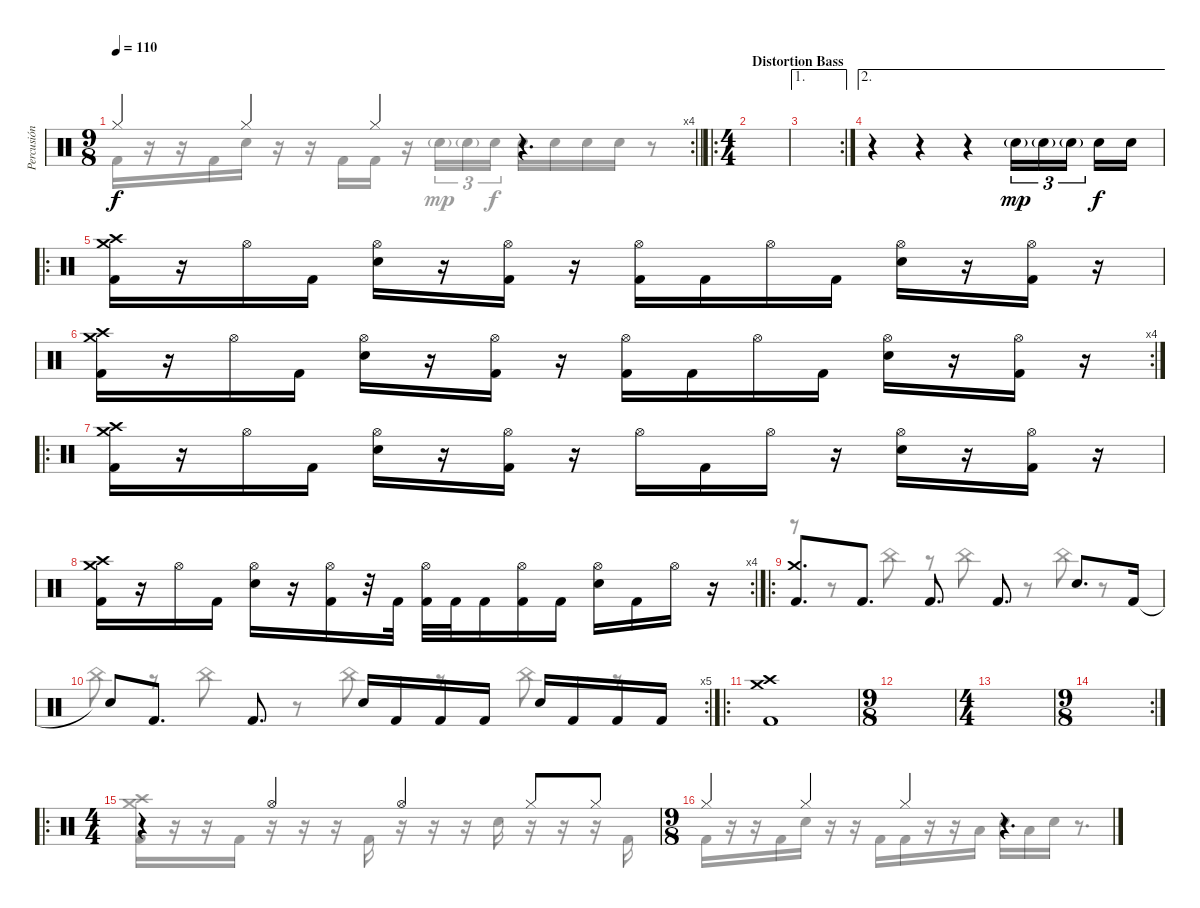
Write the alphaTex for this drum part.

\track ("Percusión" "Percusión") {instrument percussion}
\staff {score}
\articulation defaults
\voice
\rc 4
\ts (9 8)
\tempo 110
\clef neutral
\barLineRight lightlight
\ks c "Hi-Hat (closed)".4{dy f} "Hi-Hat (closed)".4 "Hi-Hat (closed)".4
r.4{d} |
\ro
\ts (4 4)
\section ("" "Distortion Bass")
|
\ae 1
\rc 2
|
\ae 2
r.4 r.4 r.4 "Snare (hit) 2"{g}.16{tu (3 2) dy mp} "Snare (hit) 2"{g}.16{tu (3 2)} "Snare (hit) 2"{g}.16{tu (3 2) beam splitsecondary} "Snare (hit) 2".16{dy f} "Snare (hit) 2".16 |
\ro
("Crash high (hit)" "Crash medium (hit)" "Kick (hit) 2").16 r.16 "Hi-Hat (open)".16 "Kick (hit) 2".16 ("Hi-Hat (open)" "Snare (hit) 2").16 r.16 ("Hi-Hat (open)" "Kick (hit) 2").16 r.16 ("Hi-Hat (open)" "Kick (hit) 2").16 "Kick (hit) 2".16 "Hi-Hat (open)".16 "Kick (hit) 2".16 ("Hi-Hat (open)" "Snare (hit) 2").16 r.16 ("Hi-Hat (open)" "Kick (hit) 2").16 r.16 |
\rc 4
("Crash high (hit)" "Crash medium (hit)" "Kick (hit) 2").16 r.16 "Hi-Hat (open)".16 "Kick (hit) 2".16 ("Hi-Hat (open)" "Snare (hit) 2").16 r.16 ("Hi-Hat (open)" "Kick (hit) 2").16 r.16 ("Hi-Hat (open)" "Kick (hit) 2").16 "Kick (hit) 2".16 "Hi-Hat (open)".16 "Kick (hit) 2".16 ("Hi-Hat (open)" "Snare (hit) 2").16 r.16 ("Hi-Hat (open)" "Kick (hit) 2").16 r.16 |
\ro
("Crash high (hit)" "Crash medium (hit)" "Kick (hit) 2").16 r.16 "Hi-Hat (open)".16 "Kick (hit) 2".16 ("Hi-Hat (open)" "Snare (hit) 2").16 r.16 ("Hi-Hat (open)" "Kick (hit) 2").16 r.16 "Hi-Hat (open)".16 "Kick (hit) 2".16 "Hi-Hat (open)".16 r.16 ("Hi-Hat (open)" "Snare (hit) 2").16 r.16 ("Hi-Hat (open)" "Kick (hit) 2").16 r.16 |
\rc 4
("Crash high (hit)" "Crash medium (hit)" "Kick (hit) 2").16 r.16 "Hi-Hat (open)".16 "Kick (hit) 2".16 ("Hi-Hat (open)" "Snare (hit) 2").16 r.16 ("Hi-Hat (open)" "Kick (hit) 2").16 r.32 "Kick (hit) 2".32 ("Hi-Hat (open)" "Kick (hit) 2").32 "Kick (hit) 2".32 "Kick (hit) 2".16 ("Hi-Hat (open)" "Kick (hit) 2").16 "Kick (hit) 2".16 ("Hi-Hat (open)" "Snare (hit) 2").16 "Kick (hit) 2".16 "Hi-Hat (open)".16 r.16 |
\ro
("Crash medium (hit)" "Kick (hit) 2").8{d} "Kick (hit) 2".8{d} "Kick (hit) 2".8{d} "Kick (hit) 2".8{d} "Snare (hit) 2".8{d} "Kick (hit) 2".16 |
\rc 5 "Snare (hit)"{t}.8 "Kick (hit) 2".8{d} "Kick (hit) 2".8{d} "Snare (hit) 2".16 "Kick (hit) 2".16 "Kick (hit) 2".16 "Kick (hit) 2".16 "Snare (hit) 2".16 "Kick (hit) 2".16 "Kick (hit) 2".16 "Kick (hit) 2".16
|
\ro
("Crash high (hit)" "Crash medium (hit)" "Kick (hit) 2").1 |
\ts (9 8)
|
\ts (4 4)
|
\rc 2
\ts (9 8)
|
\ro
\ts (4 4)
r.4 "Hi-Hat (open)".4 "Hi-Hat (open)".4 "Hi-Hat (closed)".8 "Hi-Hat (closed)".8 |
\ts (9 8)
"Hi-Hat (closed)".4 "Hi-Hat (closed)".4 "Hi-Hat (closed)".4 r.4{d}
\voice
\clef neutral
\ottava regular
\simile none
\barLineRight lightlight
\ks c "Kick (hit) 2".16{dy f}
r.16 r.16 "Kick (hit) 2".16 "Snare (hit) 2".16 r.16 r.16 "Kick (hit) 2".16 "Kick (hit) 2".16 r.16 "Snare (hit) 2"{g}.16{tu (3 2) dy mp} "Snare (hit) 2"{g}.16{tu (3 2)} "Snare (hit) 2".16{tu (3 2) dy f} "Snare (hit) 2".16 "Snare (hit) 2".16 "Snare (hit) 2".16 "Snare (hit) 2".16 r.8 |
|
|
|
|
|
|
|
r.8 r.8 "China (hit)".8 r.8 "China (hit)".8 r.8 "China (hit)".8 r.8 |
"China (hit)".8 r.8 "China (hit)".8 r.8 "China (hit)".8 r.8 "China (hit)".8 r.8 |
|
|
|
|
("Crash high (hit)" "Crash medium (hit)" "Kick (hit) 2").16 r.16 r.16 "Kick (hit) 2".16 r.16 r.16 r.16 "Kick (hit) 2".16 r.16 r.16 r.16 "Snare (hit) 2".16 r.16 r.16 r.16 "Kick (hit) 2".16 |
"Kick (hit) 2".16 r.16 r.16 "Kick (hit) 2".16 "Snare (hit) 2".16 r.16 r.16 "Kick (hit) 2".16 "Kick (hit) 2".16 r.16 r.16 "Low Tom (hit)".16 "Snare (hit) 2".16 "Low Tom (hit)".16 "Snare (hit) 2".16 r.8{d}
